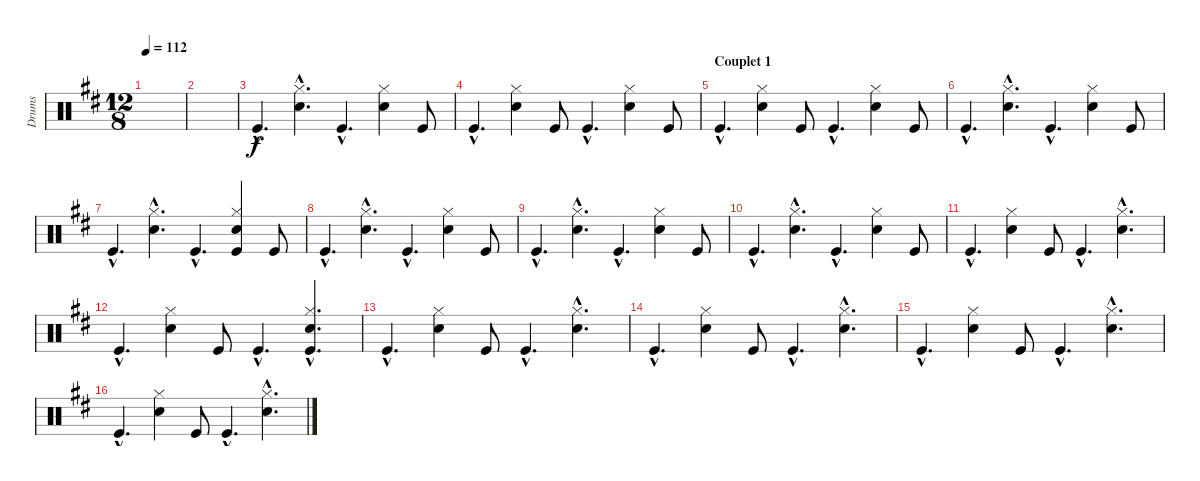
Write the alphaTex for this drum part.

\track ("Drums" "Drums") {instrument percussion}
\staff {score}
\articulation defaults
\ts (12 8)
\tempo 112
\clef neutral
\ks d
|
|
"Kick (hit)"{hac}.4{d} ("Hi-Hat (closed)"{hac} "Electric Snare (hit)"{hac}).4{d} "Kick (hit)"{hac}.4{d} ("Hi-Hat (closed)" "Electric Snare (hit)").4 "Kick (hit)".8 |
"Kick (hit)"{hac}.4{d} ("Hi-Hat (closed)" "Electric Snare (hit)").4 "Kick (hit)".8 "Kick (hit)"{hac}.4{d} ("Hi-Hat (closed)" "Electric Snare (hit)").4 "Kick (hit)".8 |
\section ("" "Couplet 1")
"Kick (hit)"{hac}.4{d} ("Hi-Hat (closed)" "Electric Snare (hit)").4 "Kick (hit)".8 "Kick (hit)"{hac}.4{d} ("Hi-Hat (closed)" "Electric Snare (hit)").4 "Kick (hit)".8 |
"Kick (hit)"{hac}.4{d} ("Hi-Hat (closed)"{hac} "Electric Snare (hit)"{hac}).4{d} "Kick (hit)"{hac}.4{d} ("Hi-Hat (closed)" "Electric Snare (hit)").4 "Kick (hit)".8 |
"Kick (hit)"{hac}.4{d} ("Hi-Hat (closed)"{hac} "Electric Snare (hit)"{hac}).4{d} "Kick (hit)"{hac}.4{d} ("Hi-Hat (closed)" "Electric Snare (hit)" "Kick (hit)").4 "Kick (hit)".8 |
"Kick (hit)"{hac}.4{d} ("Hi-Hat (closed)"{hac} "Electric Snare (hit)"{hac}).4{d} "Kick (hit)"{hac}.4{d} ("Hi-Hat (closed)" "Electric Snare (hit)").4 "Kick (hit)".8 |
"Kick (hit)"{hac}.4{d} ("Hi-Hat (closed)"{hac} "Electric Snare (hit)"{hac}).4{d} "Kick (hit)"{hac}.4{d} ("Hi-Hat (closed)" "Electric Snare (hit)").4 "Kick (hit)".8 |
"Kick (hit)"{hac}.4{d} ("Hi-Hat (closed)"{hac} "Electric Snare (hit)"{hac}).4{d} "Kick (hit)"{hac}.4{d} ("Hi-Hat (closed)" "Electric Snare (hit)").4 "Kick (hit)".8 |
"Kick (hit)"{hac}.4{d} ("Hi-Hat (closed)" "Electric Snare (hit)").4 "Kick (hit)".8 "Kick (hit)"{hac}.4{d} ("Hi-Hat (closed)"{hac} "Electric Snare (hit)"{hac}).4{d} |
"Kick (hit)"{hac}.4{d} ("Hi-Hat (closed)" "Electric Snare (hit)").4 "Kick (hit)".8 "Kick (hit)"{hac}.4{d} ("Hi-Hat (closed)"{hac} "Electric Snare (hit)"{hac} "Kick (hit)"{hac}).4{d} |
"Kick (hit)"{hac}.4{d} ("Hi-Hat (closed)" "Electric Snare (hit)").4 "Kick (hit)".8 "Kick (hit)"{hac}.4{d} ("Hi-Hat (closed)"{hac} "Electric Snare (hit)"{hac}).4{d} |
"Kick (hit)"{hac}.4{d} ("Hi-Hat (closed)" "Electric Snare (hit)").4 "Kick (hit)".8 "Kick (hit)"{hac}.4{d} ("Hi-Hat (closed)"{hac} "Electric Snare (hit)"{hac}).4{d} |
"Kick (hit)"{hac}.4{d} ("Hi-Hat (closed)" "Electric Snare (hit)").4 "Kick (hit)".8 "Kick (hit)"{hac}.4{d} ("Hi-Hat (closed)"{hac} "Electric Snare (hit)"{hac}).4{d} |
"Kick (hit)"{hac}.4{d} ("Hi-Hat (closed)" "Electric Snare (hit)").4 "Kick (hit)".8 "Kick (hit)"{hac}.4{d} ("Hi-Hat (closed)"{hac} "Electric Snare (hit)"{hac}).4{d}
